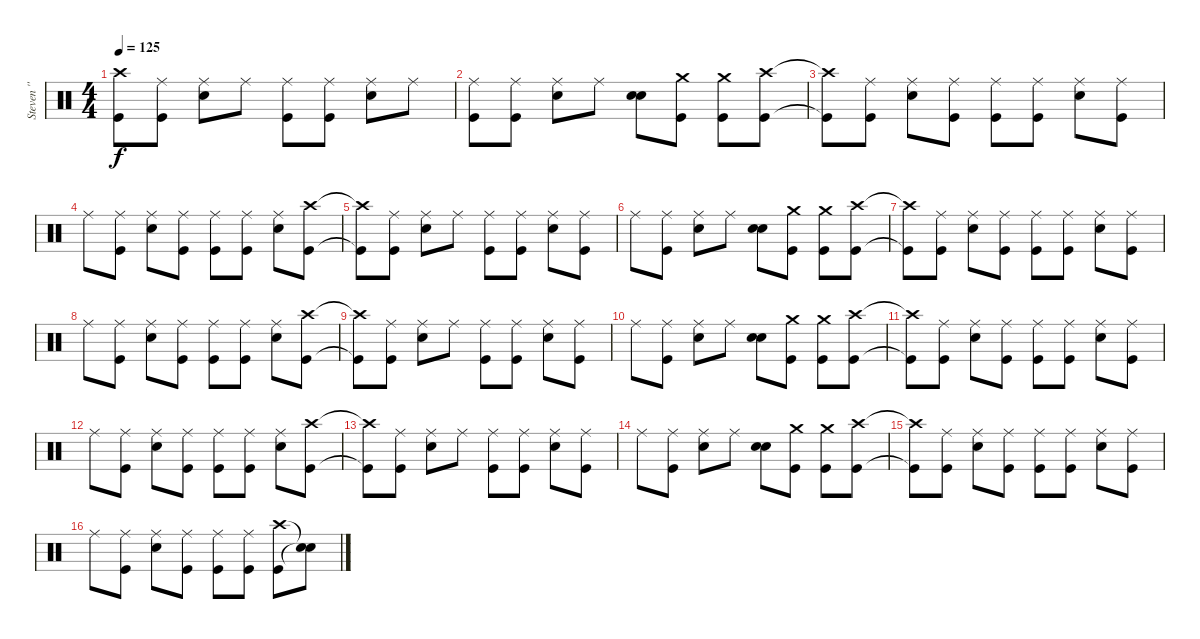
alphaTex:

\track ("Steven '' Popcorn '' Adler" "Steven '' ") {instrument percussion}
\staff {score}
\articulation defaults
\ts (4 4)
\tempo 125
\clef neutral
\ks c
("Crash high (hit)" "Kick (hit)").8{dy f} ("Ride (middle)" "Kick (hit)").8 ("Ride (middle)" "Snare (hit) 2").8 "Ride (middle)".8 ("Ride (middle)" "Kick (hit)").8 ("Ride (middle)" "Kick (hit)").8 ("Ride (middle)" "Snare (hit) 2").8 "Ride (middle)".8 |
("Ride (middle)" "Kick (hit)").8 ("Ride (middle)" "Kick (hit)").8 ("Ride (middle)" "Snare (hit) 2").8 "Ride (middle)".8 ("Snare (hit) 2" "Snare (hit) 2").8 ("Crash medium (hit)" "Kick (hit)").8 ("Crash medium (hit)" "Kick (hit)").8 ("Crash high (hit)" "Kick (hit)").8 |
("Crash high (hit)"{t} "Kick (hit)"{t}).8 ("Ride (middle)" "Kick (hit)").8 ("Ride (middle)" "Snare (hit) 2").8 ("Ride (middle)" "Kick (hit)").8 ("Ride (middle)" "Kick (hit)").8 ("Ride (middle)" "Kick (hit)").8 ("Ride (middle)" "Snare (hit) 2").8 ("Ride (middle)" "Kick (hit)").8 |
"Ride (middle)".8 ("Ride (middle)" "Kick (hit)").8 ("Ride (middle)" "Snare (hit) 2").8 ("Ride (middle)" "Kick (hit)").8 ("Ride (middle)" "Kick (hit)").8 ("Ride (middle)" "Kick (hit)").8 ("Ride (middle)" "Snare (hit) 2").8 ("Crash high (hit)" "Kick (hit)").8 |
("Crash high (hit)"{t} "Kick (hit)"{t}).8 ("Ride (middle)" "Kick (hit)").8 ("Ride (middle)" "Snare (hit) 2").8 "Ride (middle)".8 ("Ride (middle)" "Kick (hit)").8 ("Ride (middle)" "Kick (hit)").8 ("Ride (middle)" "Snare (hit) 2").8 ("Ride (middle)" "Kick (hit)").8 |
"Ride (middle)".8 ("Ride (middle)" "Kick (hit)").8 ("Ride (middle)" "Snare (hit) 2").8 "Ride (middle)".8 ("Snare (hit) 2" "Snare (hit) 2").8 ("Crash medium (hit)" "Kick (hit)").8 ("Crash medium (hit)" "Kick (hit)").8 ("Crash high (hit)" "Kick (hit)").8 |
("Crash high (hit)"{t} "Kick (hit)"{t}).8 ("Ride (middle)" "Kick (hit)").8 ("Ride (middle)" "Snare (hit) 2").8 ("Ride (middle)" "Kick (hit)").8 ("Ride (middle)" "Kick (hit)").8 ("Ride (middle)" "Kick (hit)").8 ("Ride (middle)" "Snare (hit) 2").8 ("Ride (middle)" "Kick (hit)").8 |
"Ride (middle)".8 ("Ride (middle)" "Kick (hit)").8 ("Ride (middle)" "Snare (hit) 2").8 ("Ride (middle)" "Kick (hit)").8 ("Ride (middle)" "Kick (hit)").8 ("Ride (middle)" "Kick (hit)").8 ("Ride (middle)" "Snare (hit) 2").8 ("Crash high (hit)" "Kick (hit)").8 |
("Crash high (hit)"{t} "Kick (hit)"{t}).8 ("Ride (middle)" "Kick (hit)").8 ("Ride (middle)" "Snare (hit) 2").8 "Ride (middle)".8 ("Ride (middle)" "Kick (hit)").8 ("Ride (middle)" "Kick (hit)").8 ("Ride (middle)" "Snare (hit) 2").8 ("Ride (middle)" "Kick (hit)").8 |
"Ride (middle)".8 ("Ride (middle)" "Kick (hit)").8 ("Ride (middle)" "Snare (hit) 2").8 "Ride (middle)".8 ("Snare (hit) 2" "Snare (hit) 2").8 ("Crash medium (hit)" "Kick (hit)").8 ("Crash medium (hit)" "Kick (hit)").8 ("Crash high (hit)" "Kick (hit)").8 |
("Crash high (hit)"{t} "Kick (hit)"{t}).8 ("Ride (middle)" "Kick (hit)").8 ("Ride (middle)" "Snare (hit) 2").8 ("Ride (middle)" "Kick (hit)").8 ("Ride (middle)" "Kick (hit)").8 ("Ride (middle)" "Kick (hit)").8 ("Ride (middle)" "Snare (hit) 2").8 ("Ride (middle)" "Kick (hit)").8 |
"Ride (middle)".8 ("Ride (middle)" "Kick (hit)").8 ("Ride (middle)" "Snare (hit) 2").8 ("Ride (middle)" "Kick (hit)").8 ("Ride (middle)" "Kick (hit)").8 ("Ride (middle)" "Kick (hit)").8 ("Ride (middle)" "Snare (hit) 2").8 ("Crash high (hit)" "Kick (hit)").8 |
("Crash high (hit)"{t} "Kick (hit)"{t}).8 ("Ride (middle)" "Kick (hit)").8 ("Ride (middle)" "Snare (hit) 2").8 "Ride (middle)".8 ("Ride (middle)" "Kick (hit)").8 ("Ride (middle)" "Kick (hit)").8 ("Ride (middle)" "Snare (hit) 2").8 ("Ride (middle)" "Kick (hit)").8 |
"Ride (middle)".8 ("Ride (middle)" "Kick (hit)").8 ("Ride (middle)" "Snare (hit) 2").8 "Ride (middle)".8 ("Snare (hit) 2" "Snare (hit) 2").8 ("Crash medium (hit)" "Kick (hit)").8 ("Crash medium (hit)" "Kick (hit)").8 ("Crash high (hit)" "Kick (hit)").8 |
("Crash high (hit)"{t} "Kick (hit)"{t}).8 ("Ride (middle)" "Kick (hit)").8 ("Ride (middle)" "Snare (hit) 2").8 ("Ride (middle)" "Kick (hit)").8 ("Ride (middle)" "Kick (hit)").8 ("Ride (middle)" "Kick (hit)").8 ("Ride (middle)" "Snare (hit) 2").8 ("Ride (middle)" "Kick (hit)").8 |
"Ride (middle)".8 ("Ride (middle)" "Kick (hit)").8 ("Ride (middle)" "Snare (hit) 2").8 ("Ride (middle)" "Kick (hit)").8 ("Ride (middle)" "Kick (hit)").8 ("Ride (middle)" "Kick (hit)").8 ("Crash high (hit)" "Kick (hit)").8 ("Snare (hit)"{t} "Snare (hit)"{t}).8
